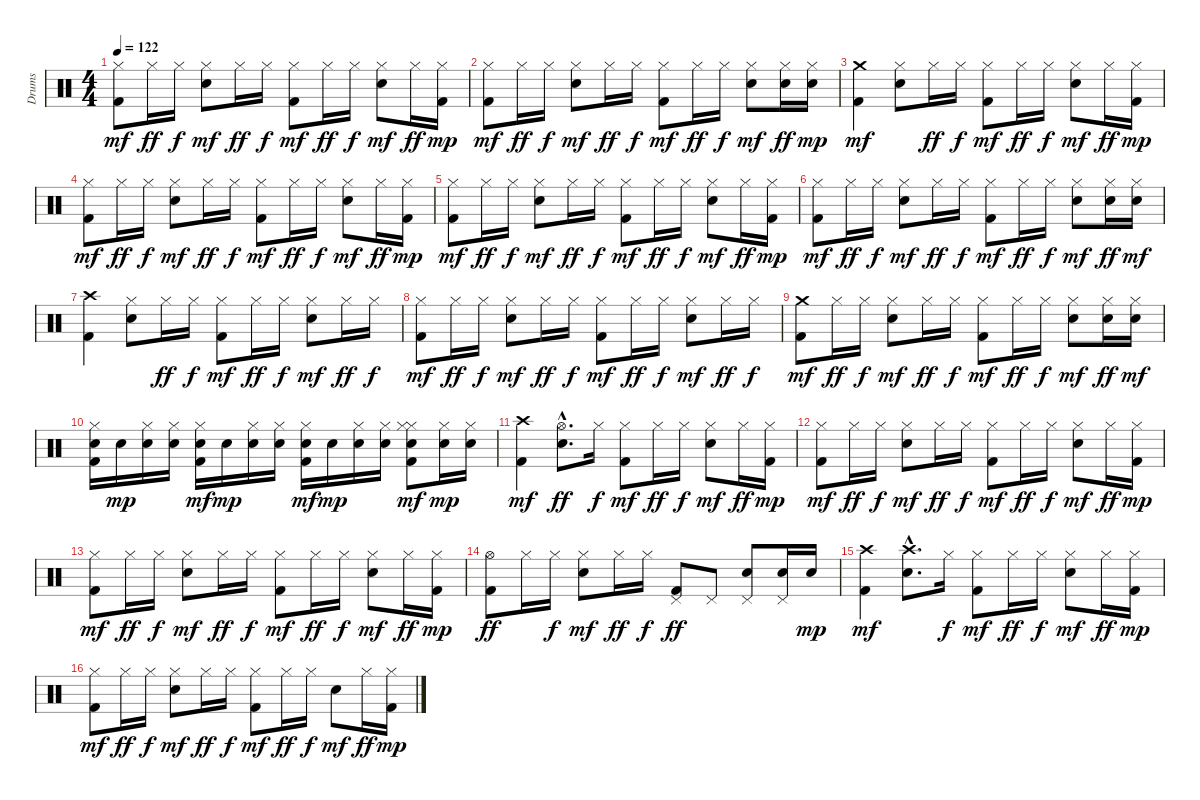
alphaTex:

\track ("Drums" "Drums") {instrument percussion}
\staff {score}
\articulation defaults
\ts (4 4)
\tempo 122
\clef neutral
\ks c
("Hi-Hat (closed)" "Kick (hit) 2").8{dy mf} "Hi-Hat (closed)".16{dy ff} "Hi-Hat (closed)".16{dy f} ("Hi-Hat (closed)" "Snare (hit) 2").8{dy mf} "Hi-Hat (closed)".16{dy ff} "Hi-Hat (closed)".16{dy f} ("Hi-Hat (closed)" "Kick (hit) 2").8{dy mf} "Hi-Hat (closed)".16{dy ff} "Hi-Hat (closed)".16{dy f} ("Hi-Hat (closed)" "Snare (hit) 2").8{dy mf} "Hi-Hat (closed)".16{dy ff} ("Hi-Hat (closed)" "Kick (hit) 2").16{dy mp} |
("Hi-Hat (closed)" "Kick (hit) 2").8{dy mf} "Hi-Hat (closed)".16{dy ff} "Hi-Hat (closed)".16{dy f} ("Hi-Hat (closed)" "Snare (hit) 2").8{dy mf} "Hi-Hat (closed)".16{dy ff} "Hi-Hat (closed)".16{dy f} ("Hi-Hat (closed)" "Kick (hit) 2").8{dy mf} "Hi-Hat (closed)".16{dy ff} "Hi-Hat (closed)".16{dy f} ("Hi-Hat (closed)" "Snare (hit) 2").8{dy mf} ("Snare (hit) 2" "Hi-Hat (closed)").16{dy ff} ("Hi-Hat (closed)" "Snare (hit) 2").16{dy mp} |
("Kick (hit) 2" "Crash medium (hit)").4{dy mf} ("Hi-Hat (closed)" "Snare (hit) 2").8 "Hi-Hat (closed)".16{dy ff} "Hi-Hat (closed)".16{dy f} ("Hi-Hat (closed)" "Kick (hit) 2").8{dy mf} "Hi-Hat (closed)".16{dy ff} "Hi-Hat (closed)".16{dy f} ("Hi-Hat (closed)" "Snare (hit) 2").8{dy mf} "Hi-Hat (closed)".16{dy ff} ("Hi-Hat (closed)" "Kick (hit) 2").16{dy mp} |
("Hi-Hat (closed)" "Kick (hit) 2").8{dy mf} "Hi-Hat (closed)".16{dy ff} "Hi-Hat (closed)".16{dy f} ("Hi-Hat (closed)" "Snare (hit) 2").8{dy mf} "Hi-Hat (closed)".16{dy ff} "Hi-Hat (closed)".16{dy f} ("Hi-Hat (closed)" "Kick (hit) 2").8{dy mf} "Hi-Hat (closed)".16{dy ff} "Hi-Hat (closed)".16{dy f} ("Hi-Hat (closed)" "Snare (hit) 2").8{dy mf} "Hi-Hat (closed)".16{dy ff} ("Hi-Hat (closed)" "Kick (hit) 2").16{dy mp} |
("Hi-Hat (closed)" "Kick (hit) 2").8{dy mf} "Hi-Hat (closed)".16{dy ff} "Hi-Hat (closed)".16{dy f} ("Hi-Hat (closed)" "Snare (hit) 2").8{dy mf} "Hi-Hat (closed)".16{dy ff} "Hi-Hat (closed)".16{dy f} ("Hi-Hat (closed)" "Kick (hit) 2").8{dy mf} "Hi-Hat (closed)".16{dy ff} "Hi-Hat (closed)".16{dy f} ("Hi-Hat (closed)" "Snare (hit) 2").8{dy mf} "Hi-Hat (closed)".16{dy ff} ("Hi-Hat (closed)" "Kick (hit) 2").16{dy mp} |
("Hi-Hat (closed)" "Kick (hit) 2").8{dy mf} "Hi-Hat (closed)".16{dy ff} "Hi-Hat (closed)".16{dy f} ("Hi-Hat (closed)" "Snare (hit) 2").8{dy mf} "Hi-Hat (closed)".16{dy ff} "Hi-Hat (closed)".16{dy f} ("Hi-Hat (closed)" "Kick (hit) 2").8{dy mf} "Hi-Hat (closed)".16{dy ff} "Hi-Hat (closed)".16{dy f} ("Hi-Hat (closed)" "Snare (hit) 2").8{dy mf} ("Snare (hit) 2" "Hi-Hat (closed)").16{dy ff} ("Hi-Hat (closed)" "Snare (hit) 2").16{dy mf} |
("Kick (hit) 2" "Crash high (hit)").4 ("Hi-Hat (closed)" "Snare (hit) 2").8 "Hi-Hat (closed)".16{dy ff} "Hi-Hat (closed)".16{dy f} ("Hi-Hat (closed)" "Kick (hit) 2").8{dy mf} "Hi-Hat (closed)".16{dy ff} "Hi-Hat (closed)".16{dy f} ("Hi-Hat (closed)" "Snare (hit) 2").8{dy mf} "Hi-Hat (closed)".16{dy ff} "Hi-Hat (closed)".16{dy f} |
("Hi-Hat (closed)" "Kick (hit) 2").8{dy mf} "Hi-Hat (closed)".16{dy ff} "Hi-Hat (closed)".16{dy f} ("Hi-Hat (closed)" "Snare (hit) 2").8{dy mf} "Hi-Hat (closed)".16{dy ff} "Hi-Hat (closed)".16{dy f} ("Hi-Hat (closed)" "Kick (hit) 2").8{dy mf} "Hi-Hat (closed)".16{dy ff} "Hi-Hat (closed)".16{dy f} ("Hi-Hat (closed)" "Snare (hit) 2").8{dy mf} "Hi-Hat (closed)".16{dy ff} "Hi-Hat (closed)".16{dy f} |
("Kick (hit) 2" "Crash medium (hit)").8{dy mf} "Hi-Hat (closed)".16{dy ff} "Hi-Hat (closed)".16{dy f} ("Hi-Hat (closed)" "Snare (hit) 2").8{dy mf} "Hi-Hat (closed)".16{dy ff} "Hi-Hat (closed)".16{dy f} ("Hi-Hat (closed)" "Kick (hit) 2").8{dy mf} "Hi-Hat (closed)".16{dy ff} "Hi-Hat (closed)".16{dy f} ("Hi-Hat (closed)" "Snare (hit) 2").8{dy mf} ("Snare (hit) 2" "Hi-Hat (closed)").16{dy ff} ("Hi-Hat (closed)" "Snare (hit) 2").16{dy mf} |
("Hi-Hat (closed)" "Snare (hit) 2" "Kick (hit) 2").16 "Snare (hit) 2".16{dy mp} ("Snare (hit) 2" "Hi-Hat (closed)").16 ("Hi-Hat (closed)" "Snare (hit) 2").16 ("Hi-Hat (closed)" "Snare (hit) 2" "Kick (hit) 2").16{dy mf} "Snare (hit) 2".16{dy mp} ("Snare (hit) 2" "Hi-Hat (closed)").16 ("Hi-Hat (closed)" "Snare (hit) 2").16 ("Snare (hit) 2" "Hi-Hat (closed)" "Kick (hit) 2").16{dy mf} "Snare (hit) 2".16{dy mp} ("Snare (hit) 2" "Hi-Hat (closed)").16 ("Hi-Hat (closed)" "Snare (hit) 2").16 ("Snare (hit) 2" "Hi-Hat (closed)" "Hi-Hat (closed)" "Kick (hit) 2").8{dy mf} ("Snare (hit) 2" "Hi-Hat (closed)").16{dy mp} ("Hi-Hat (closed)" "Snare (hit) 2").16 |
("Kick (hit) 2" "Crash high (hit)").4{dy mf} ("Snare (hit) 2"{hac} "Hi-Hat (open)"{hac}).8{d dy ff} "Hi-Hat (closed)".16{dy f} ("Kick (hit) 2" "Hi-Hat (closed)").8{dy mf} "Hi-Hat (closed)".16{dy ff} "Hi-Hat (closed)".16{dy f} ("Snare (hit) 2" "Hi-Hat (closed)").8{dy mf} "Hi-Hat (closed)".16{dy ff} ("Kick (hit) 2" "Hi-Hat (closed)").16{dy mp} |
("Kick (hit) 2" "Hi-Hat (closed)").8{dy mf} "Hi-Hat (closed)".16{dy ff} "Hi-Hat (closed)".16{dy f} ("Snare (hit) 2" "Hi-Hat (closed)").8{dy mf} "Hi-Hat (closed)".16{dy ff} "Hi-Hat (closed)".16{dy f} ("Kick (hit) 2" "Hi-Hat (closed)").8{dy mf} "Hi-Hat (closed)".16{dy ff} "Hi-Hat (closed)".16{dy f} ("Snare (hit) 2" "Hi-Hat (closed)").8{dy mf} "Hi-Hat (closed)".16{dy ff} ("Kick (hit) 2" "Hi-Hat (closed)").16{dy mp} |
("Kick (hit) 2" "Hi-Hat (closed)").8{dy mf} "Hi-Hat (closed)".16{dy ff} "Hi-Hat (closed)".16{dy f} ("Snare (hit) 2" "Hi-Hat (closed)").8{dy mf} "Hi-Hat (closed)".16{dy ff} "Hi-Hat (closed)".16{dy f} ("Kick (hit) 2" "Hi-Hat (closed)").8{dy mf} "Hi-Hat (closed)".16{dy ff} "Hi-Hat (closed)".16{dy f} ("Snare (hit) 2" "Hi-Hat (closed)").8{dy mf} "Hi-Hat (closed)".16{dy ff} ("Hi-Hat (closed)" "Kick (hit) 2").16{dy mp} |
("Kick (hit) 2" "Hi-Hat (open)").8{dy ff} "Hi-Hat (closed)".16 "Hi-Hat (closed)".16{dy f} ("Snare (hit) 2" "Hi-Hat (closed)").8{dy mf} "Hi-Hat (closed)".16{dy ff} "Hi-Hat (closed)".16{dy f} ("Kick (hit) 2" "Pedal Hi-Hat (hit)").8{dy ff} "Pedal Hi-Hat (hit)".8 ("Snare (hit) 2" "Pedal Hi-Hat (hit)").8 ("Snare (hit) 2" "Pedal Hi-Hat (hit)").16 "Snare (hit) 2".16{dy mp} |
("Kick (hit) 2" "Crash high (hit)").4{dy mf} ("Snare (hit) 2" "Crash high (hit)"{hac}).8{d} "Hi-Hat (closed)".16{dy f} ("Kick (hit) 2" "Hi-Hat (closed)").8{dy mf} "Hi-Hat (closed)".16{dy ff} "Hi-Hat (closed)".16{dy f} ("Snare (hit) 2" "Hi-Hat (closed)").8{dy mf} "Hi-Hat (closed)".16{dy ff} ("Kick (hit) 2" "Hi-Hat (closed)").16{dy mp} |
("Kick (hit) 2" "Hi-Hat (closed)").8{dy mf} "Hi-Hat (closed)".16{dy ff} "Hi-Hat (closed)".16{dy f} ("Snare (hit) 2" "Hi-Hat (closed)").8{dy mf} "Hi-Hat (closed)".16{dy ff} "Hi-Hat (closed)".16{dy f} ("Kick (hit) 2" "Hi-Hat (closed)").8{dy mf} "Hi-Hat (closed)".16{dy ff} "Hi-Hat (closed)".16{dy f} "Snare (hit) 2".8{dy mf} "Hi-Hat (closed)".16{dy ff} ("Kick (hit) 2" "Hi-Hat (closed)").16{dy mp}
